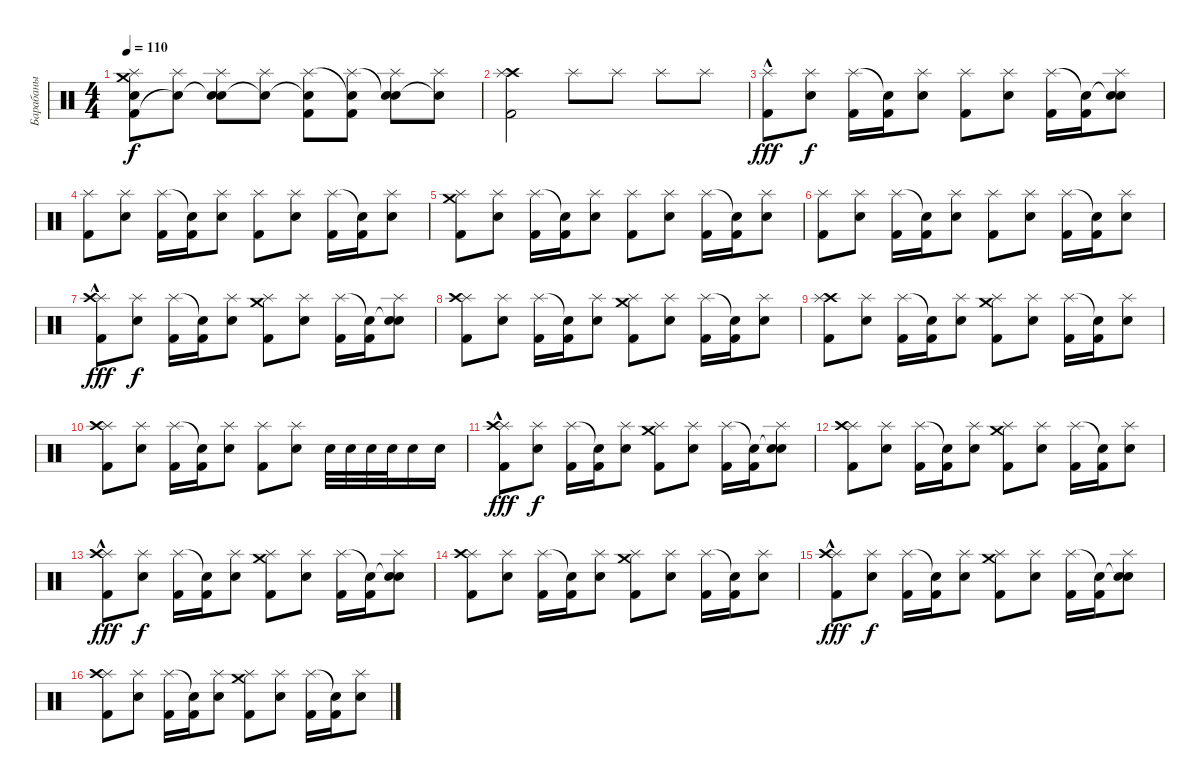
\track ("Барабаны" "Барабаны") {instrument percussion}
\staff {score}
\articulation defaults
\ts (4 4)
\tempo 110
\clef neutral
\ks c
("Crash medium (hit)" "Kick (hit) 2" "Snare (hit)"{t} "Splash (hit)").8{dy f} ("Splash (hit)" "Snare (hit)"{t}).8 ("Electric Snare (hit)" "Snare (hit)"{t} "Splash (hit)").8 ("Splash (hit)" "Snare (hit)"{t}).8 ("Kick (hit) 2" "Snare (hit)"{t} "Splash (hit)").8 ("Kick (hit) 2" "Splash (hit)" "Snare (hit)"{t}).8 ("Electric Snare (hit)" "Snare (hit)"{t} "Splash (hit)").8 ("Splash (hit)" "Snare (hit)"{t}).8 |
("Crash high (hit)" "Kick (hit) 2" "Splash (hit)").2 "Splash (hit)".8 "Splash (hit)".8 "Splash (hit)".8 "Splash (hit)".8 |
("Kick (hit) 2" "Splash (hit)"{hac}).8{dy fff} ("Electric Snare (hit)" "Splash (hit)").8{dy f} ("Kick (hit) 2" "Splash (hit)").16 ("Kick (hit) 2" "Snare (hit)"{t}).16 ("Electric Snare (hit)" "Splash (hit)").8 ("Kick (hit) 2" "Splash (hit)").8 ("Electric Snare (hit)" "Splash (hit)").8 ("Kick (hit) 2" "Splash (hit)").16 ("Kick (hit) 2" "Snare (hit)"{t}).16 ("Electric Snare (hit)" "Snare (hit)"{t} "Splash (hit)").8 |
("Kick (hit) 2" "Splash (hit)").8 ("Electric Snare (hit)" "Splash (hit)").8 ("Kick (hit) 2" "Splash (hit)").16 ("Kick (hit) 2" "Snare (hit)"{t}).16 ("Electric Snare (hit)" "Splash (hit)").8 ("Kick (hit) 2" "Splash (hit)").8 ("Electric Snare (hit)" "Splash (hit)").8 ("Kick (hit) 2" "Splash (hit)").16 ("Kick (hit) 2" "Snare (hit)"{t}).16 ("Electric Snare (hit)" "Splash (hit)").8 |
("Kick (hit) 2" "Crash medium (hit)" "Splash (hit)").8 ("Electric Snare (hit)" "Splash (hit)").8 ("Kick (hit) 2" "Splash (hit)").16 ("Kick (hit) 2" "Snare (hit)"{t}).16 ("Electric Snare (hit)" "Splash (hit)").8 ("Kick (hit) 2" "Splash (hit)").8 ("Electric Snare (hit)" "Splash (hit)").8 ("Kick (hit) 2" "Splash (hit)").16 ("Kick (hit) 2" "Snare (hit)"{t}).16 ("Electric Snare (hit)" "Splash (hit)").8 |
("Kick (hit) 2" "Splash (hit)").8 ("Electric Snare (hit)" "Splash (hit)").8 ("Kick (hit) 2" "Splash (hit)").16 ("Kick (hit) 2" "Snare (hit)"{t}).16 ("Electric Snare (hit)" "Splash (hit)").8 ("Kick (hit) 2" "Splash (hit)").8 ("Electric Snare (hit)" "Splash (hit)").8 ("Kick (hit) 2" "Splash (hit)").16 ("Kick (hit) 2" "Snare (hit)"{t}).16 ("Electric Snare (hit)" "Splash (hit)").8 |
("Kick (hit) 2" "Splash (hit)"{hac} "Crash high (hit)").8{dy fff} ("Electric Snare (hit)" "Splash (hit)").8{dy f} ("Kick (hit) 2" "Splash (hit)").16 ("Kick (hit) 2" "Snare (hit)"{t}).16 ("Electric Snare (hit)" "Splash (hit)").8 ("Kick (hit) 2" "Crash medium (hit)" "Splash (hit)").8 ("Electric Snare (hit)" "Splash (hit)").8 ("Kick (hit) 2" "Splash (hit)").16 ("Kick (hit) 2" "Snare (hit)"{t}).16 ("Electric Snare (hit)" "Snare (hit)"{t} "Splash (hit)").8 |
("Kick (hit) 2" "Splash (hit)" "Crash high (hit)").8 ("Electric Snare (hit)" "Splash (hit)").8 ("Kick (hit) 2" "Splash (hit)").16 ("Kick (hit) 2" "Snare (hit)"{t}).16 ("Electric Snare (hit)" "Splash (hit)").8 ("Kick (hit) 2" "Crash medium (hit)" "Splash (hit)").8 ("Electric Snare (hit)" "Splash (hit)").8 ("Kick (hit) 2" "Splash (hit)").16 ("Kick (hit) 2" "Snare (hit)"{t}).16 ("Electric Snare (hit)" "Splash (hit)").8 |
("Kick (hit) 2" "Crash high (hit)" "Splash (hit)").8 ("Electric Snare (hit)" "Splash (hit)").8 ("Kick (hit) 2" "Splash (hit)").16 ("Kick (hit) 2" "Snare (hit)"{t}).16 ("Electric Snare (hit)" "Splash (hit)").8 ("Kick (hit) 2" "Crash medium (hit)" "Splash (hit)").8 ("Electric Snare (hit)" "Splash (hit)").8 ("Kick (hit) 2" "Splash (hit)").16 ("Kick (hit) 2" "Snare (hit)"{t}).16 ("Electric Snare (hit)" "Splash (hit)").8 |
("Kick (hit) 2" "Splash (hit)" "Crash high (hit)").8 ("Electric Snare (hit)" "Splash (hit)").8 ("Kick (hit) 2" "Splash (hit)").16 ("Kick (hit) 2" "Snare (hit)"{t}).16 ("Electric Snare (hit)" "Splash (hit)").8 ("Kick (hit) 2" "Splash (hit)").8 ("Electric Snare (hit)" "Splash (hit)").8 "Electric Snare (hit)".32 "Electric Snare (hit)".32 "Electric Snare (hit)".32 "Electric Snare (hit)".32 "Electric Snare (hit)".16 "Electric Snare (hit)".16 |
("Kick (hit) 2" "Splash (hit)"{hac} "Crash high (hit)").8{dy fff} ("Electric Snare (hit)" "Splash (hit)").8{dy f} ("Kick (hit) 2" "Splash (hit)").16 ("Kick (hit) 2" "Snare (hit)"{t}).16 ("Electric Snare (hit)" "Splash (hit)").8 ("Kick (hit) 2" "Crash medium (hit)" "Splash (hit)").8 ("Electric Snare (hit)" "Splash (hit)").8 ("Kick (hit) 2" "Splash (hit)").16 ("Kick (hit) 2" "Snare (hit)"{t}).16 ("Electric Snare (hit)" "Snare (hit)"{t} "Splash (hit)").8 |
("Kick (hit) 2" "Splash (hit)" "Crash high (hit)").8 ("Electric Snare (hit)" "Splash (hit)").8 ("Kick (hit) 2" "Splash (hit)").16 ("Kick (hit) 2" "Snare (hit)"{t}).16 ("Electric Snare (hit)" "Splash (hit)").8 ("Kick (hit) 2" "Crash medium (hit)" "Splash (hit)").8 ("Electric Snare (hit)" "Splash (hit)").8 ("Kick (hit) 2" "Splash (hit)").16 ("Kick (hit) 2" "Snare (hit)"{t}).16 ("Electric Snare (hit)" "Splash (hit)").8 |
("Kick (hit) 2" "Splash (hit)"{hac} "Crash high (hit)").8{dy fff} ("Electric Snare (hit)" "Splash (hit)").8{dy f} ("Kick (hit) 2" "Splash (hit)").16 ("Kick (hit) 2" "Snare (hit)"{t}).16 ("Electric Snare (hit)" "Splash (hit)").8 ("Kick (hit) 2" "Crash medium (hit)" "Splash (hit)").8 ("Electric Snare (hit)" "Splash (hit)").8 ("Kick (hit) 2" "Splash (hit)").16 ("Kick (hit) 2" "Snare (hit)"{t}).16 ("Electric Snare (hit)" "Snare (hit)"{t} "Splash (hit)").8 |
("Kick (hit) 2" "Splash (hit)" "Crash high (hit)").8 ("Electric Snare (hit)" "Splash (hit)").8 ("Kick (hit) 2" "Splash (hit)").16 ("Kick (hit) 2" "Snare (hit)"{t}).16 ("Electric Snare (hit)" "Splash (hit)").8 ("Kick (hit) 2" "Crash medium (hit)" "Splash (hit)").8 ("Electric Snare (hit)" "Splash (hit)").8 ("Kick (hit) 2" "Splash (hit)").16 ("Kick (hit) 2" "Snare (hit)"{t}).16 ("Electric Snare (hit)" "Splash (hit)").8 |
("Kick (hit) 2" "Splash (hit)"{hac} "Crash high (hit)").8{dy fff} ("Electric Snare (hit)" "Splash (hit)").8{dy f} ("Kick (hit) 2" "Splash (hit)").16 ("Kick (hit) 2" "Snare (hit)"{t}).16 ("Electric Snare (hit)" "Splash (hit)").8 ("Kick (hit) 2" "Crash medium (hit)" "Splash (hit)").8 ("Electric Snare (hit)" "Splash (hit)").8 ("Kick (hit) 2" "Splash (hit)").16 ("Kick (hit) 2" "Snare (hit)"{t}).16 ("Electric Snare (hit)" "Snare (hit)"{t} "Splash (hit)").8 |
("Kick (hit) 2" "Splash (hit)" "Crash high (hit)").8 ("Electric Snare (hit)" "Splash (hit)").8 ("Kick (hit) 2" "Splash (hit)").16 ("Kick (hit) 2" "Snare (hit)"{t}).16 ("Electric Snare (hit)" "Splash (hit)").8 ("Kick (hit) 2" "Crash medium (hit)" "Splash (hit)").8 ("Electric Snare (hit)" "Splash (hit)").8 ("Kick (hit) 2" "Splash (hit)").16 ("Kick (hit) 2" "Snare (hit)"{t}).16 ("Electric Snare (hit)" "Splash (hit)").8
